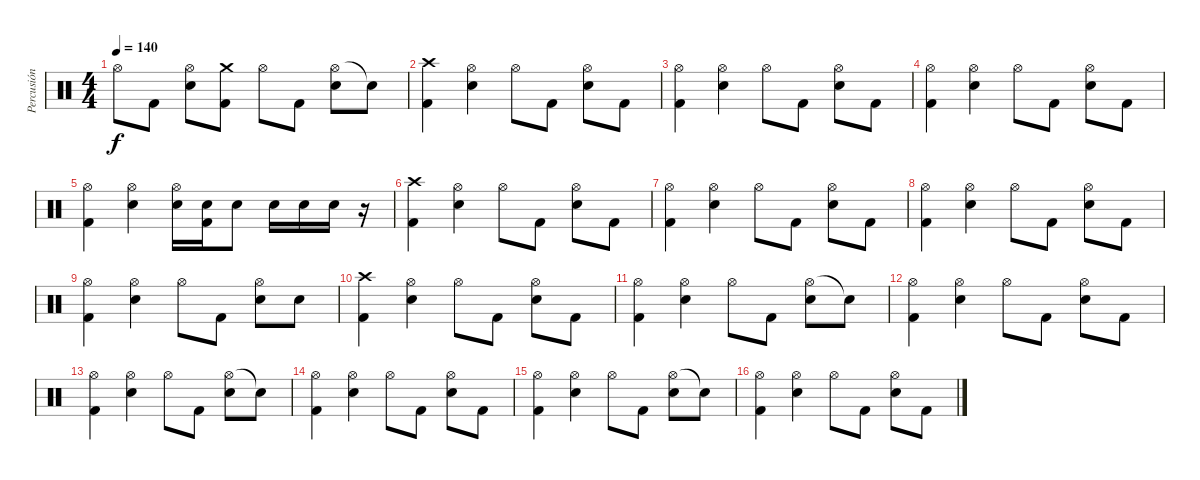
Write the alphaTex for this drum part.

\track ("Percusión" "Percusión") {instrument percussion}
\staff {score}
\articulation defaults
\ts (4 4)
\tempo 140
\clef neutral
\ks c "Hi-Hat (open)".8{dy f} "Kick (hit) 2".8
("Hi-Hat (open)" "Snare (hit) 2").8 ("Crash medium (hit)" "Kick (hit) 2").8 "Hi-Hat (open)".8 "Kick (hit) 2".8 ("Hi-Hat (open)" "Snare (hit) 2").8 "Snare (hit)"{t}.8 |
("Crash high (hit)" "Kick (hit) 2").4 ("Hi-Hat (open)" "Snare (hit) 2").4 "Hi-Hat (open)".8 "Kick (hit) 2".8 ("Hi-Hat (open)" "Snare (hit) 2").8 "Kick (hit) 2".8 |
("Hi-Hat (open)" "Kick (hit) 2").4 ("Hi-Hat (open)" "Snare (hit) 2").4 "Hi-Hat (open)".8 "Kick (hit) 2".8 ("Hi-Hat (open)" "Snare (hit) 2").8 "Kick (hit) 2".8 |
("Hi-Hat (open)" "Kick (hit) 2").4 ("Hi-Hat (open)" "Snare (hit) 2").4 "Hi-Hat (open)".8 "Kick (hit) 2".8 ("Hi-Hat (open)" "Snare (hit) 2").8 "Kick (hit) 2".8 |
("Hi-Hat (open)" "Kick (hit) 2").4 ("Hi-Hat (open)" "Snare (hit) 2").4 ("Hi-Hat (open)" "Snare (hit) 2").16 ("Snare (hit) 2" "Kick (hit) 2").16 "Snare (hit) 2".8 "Snare (hit) 2".16 "Snare (hit) 2".16 "Snare (hit) 2".16 r.16 |
("Crash high (hit)" "Kick (hit) 2").4 ("Hi-Hat (open)" "Snare (hit) 2").4 "Hi-Hat (open)".8 "Kick (hit) 2".8 ("Hi-Hat (open)" "Snare (hit) 2").8 "Kick (hit) 2".8 |
("Hi-Hat (open)" "Kick (hit) 2").4 ("Hi-Hat (open)" "Snare (hit) 2").4 "Hi-Hat (open)".8 "Kick (hit) 2".8 ("Hi-Hat (open)" "Snare (hit) 2").8 "Kick (hit) 2".8 |
("Hi-Hat (open)" "Kick (hit) 2").4 ("Hi-Hat (open)" "Snare (hit) 2").4 "Hi-Hat (open)".8 "Kick (hit) 2".8 ("Hi-Hat (open)" "Snare (hit) 2").8 "Kick (hit) 2".8 |
("Hi-Hat (open)" "Kick (hit) 2").4 ("Hi-Hat (open)" "Snare (hit) 2").4 "Hi-Hat (open)".8 "Kick (hit) 2".8 ("Hi-Hat (open)" "Snare (hit) 2").8 "Snare (hit) 2".8 |
("Crash high (hit)" "Kick (hit) 2").4 ("Hi-Hat (open)" "Snare (hit) 2").4 "Hi-Hat (open)".8 "Kick (hit) 2".8 ("Hi-Hat (open)" "Snare (hit) 2").8 "Kick (hit) 2".8 |
("Hi-Hat (open)" "Kick (hit) 2").4 ("Hi-Hat (open)" "Snare (hit) 2").4 "Hi-Hat (open)".8 "Kick (hit) 2".8 ("Hi-Hat (open)" "Snare (hit) 2").8 "Snare (hit)"{t}.8 |
("Hi-Hat (open)" "Kick (hit) 2").4 ("Hi-Hat (open)" "Snare (hit) 2").4 "Hi-Hat (open)".8 "Kick (hit) 2".8 ("Hi-Hat (open)" "Snare (hit) 2").8 "Kick (hit) 2".8 |
("Hi-Hat (open)" "Kick (hit) 2").4 ("Hi-Hat (open)" "Snare (hit) 2").4 "Hi-Hat (open)".8 "Kick (hit) 2".8 ("Hi-Hat (open)" "Snare (hit) 2").8 "Snare (hit)"{t}.8 |
("Hi-Hat (open)" "Kick (hit) 2").4 ("Hi-Hat (open)" "Snare (hit) 2").4 "Hi-Hat (open)".8 "Kick (hit) 2".8 ("Hi-Hat (open)" "Snare (hit) 2").8 "Kick (hit) 2".8 |
("Hi-Hat (open)" "Kick (hit) 2").4 ("Hi-Hat (open)" "Snare (hit) 2").4 "Hi-Hat (open)".8 "Kick (hit) 2".8 ("Hi-Hat (open)" "Snare (hit) 2").8 "Snare (hit)"{t}.8 |
("Hi-Hat (open)" "Kick (hit) 2").4 ("Hi-Hat (open)" "Snare (hit) 2").4 "Hi-Hat (open)".8 "Kick (hit) 2".8 ("Hi-Hat (open)" "Snare (hit) 2").8 "Kick (hit) 2".8
